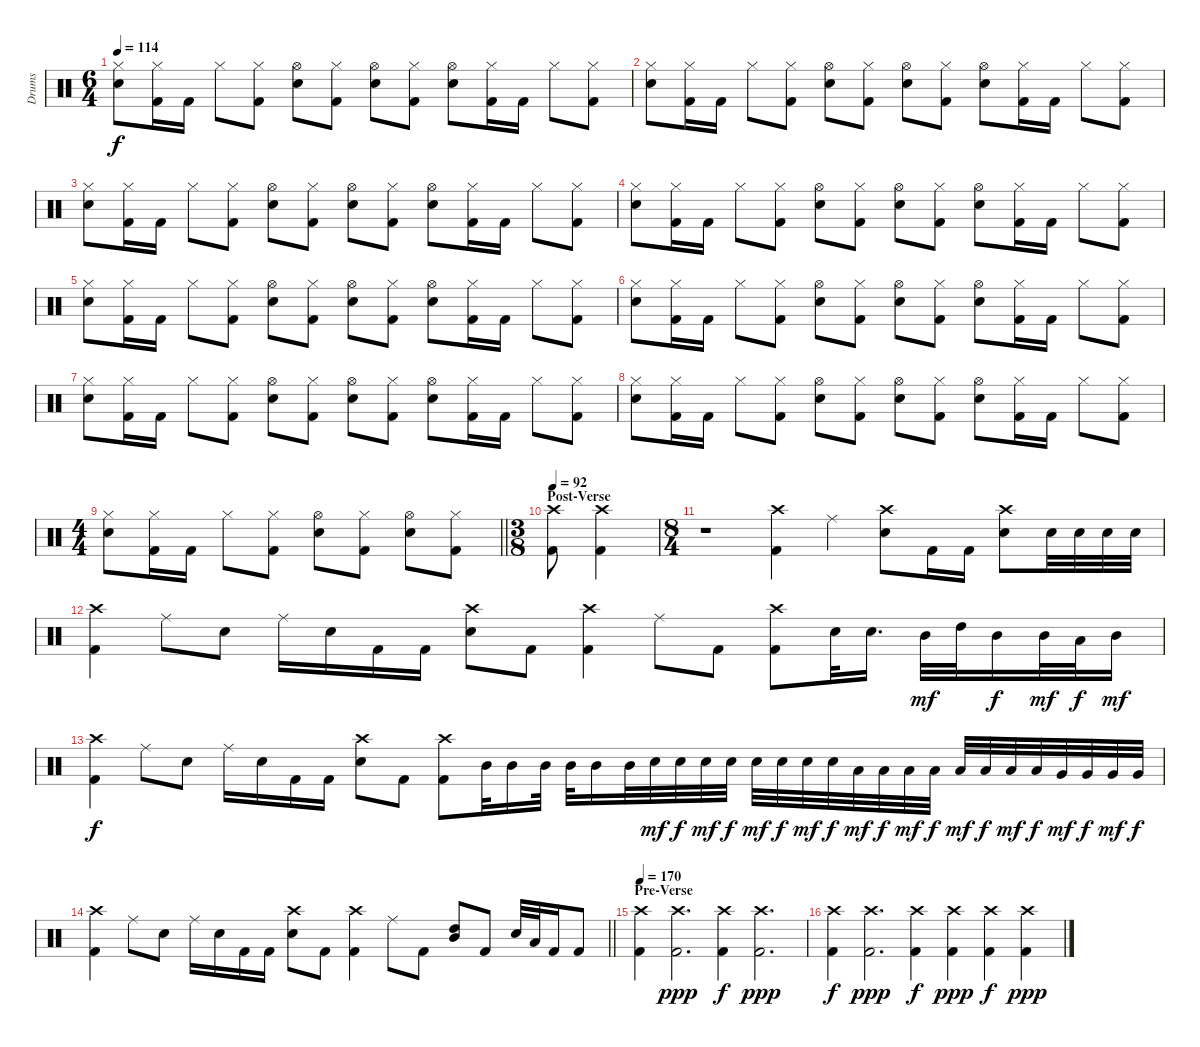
\track ("Drums" "Drums") {instrument percussion}
\staff {score}
\articulation defaults
\ts (6 4)
\tempo 114
\clef neutral
\ks c
("Hi-Hat (closed)" "Snare (hit) 2").8{dy f} ("Hi-Hat (closed)" "Kick (hit) 2").16 "Kick (hit) 2".16 "Hi-Hat (closed)".8 ("Hi-Hat (closed)" "Kick (hit) 2").8 ("Hi-Hat (open)" "Snare (hit) 2").8 ("Hi-Hat (closed)" "Kick (hit) 2").8 ("Hi-Hat (open)" "Snare (hit) 2").8 ("Hi-Hat (closed)" "Kick (hit) 2").8 ("Hi-Hat (open)" "Snare (hit) 2").8 ("Hi-Hat (closed)" "Kick (hit) 2").16 "Kick (hit) 2".16 "Hi-Hat (closed)".8 ("Hi-Hat (closed)" "Kick (hit) 2").8 |
("Hi-Hat (closed)" "Snare (hit) 2").8 ("Hi-Hat (closed)" "Kick (hit) 2").16 "Kick (hit) 2".16 "Hi-Hat (closed)".8 ("Hi-Hat (closed)" "Kick (hit) 2").8 ("Hi-Hat (open)" "Snare (hit) 2").8 ("Hi-Hat (closed)" "Kick (hit) 2").8 ("Hi-Hat (open)" "Snare (hit) 2").8 ("Hi-Hat (closed)" "Kick (hit) 2").8 ("Hi-Hat (open)" "Snare (hit) 2").8 ("Hi-Hat (closed)" "Kick (hit) 2").16 "Kick (hit) 2".16 "Hi-Hat (closed)".8 ("Hi-Hat (closed)" "Kick (hit) 2").8 |
("Hi-Hat (closed)" "Snare (hit) 2").8 ("Hi-Hat (closed)" "Kick (hit) 2").16 "Kick (hit) 2".16 "Hi-Hat (closed)".8 ("Hi-Hat (closed)" "Kick (hit) 2").8 ("Hi-Hat (open)" "Snare (hit) 2").8 ("Hi-Hat (closed)" "Kick (hit) 2").8 ("Hi-Hat (open)" "Snare (hit) 2").8 ("Hi-Hat (closed)" "Kick (hit) 2").8 ("Hi-Hat (open)" "Snare (hit) 2").8 ("Hi-Hat (closed)" "Kick (hit) 2").16 "Kick (hit) 2".16 "Hi-Hat (closed)".8 ("Hi-Hat (closed)" "Kick (hit) 2").8 |
("Hi-Hat (closed)" "Snare (hit) 2").8 ("Hi-Hat (closed)" "Kick (hit) 2").16 "Kick (hit) 2".16 "Hi-Hat (closed)".8 ("Hi-Hat (closed)" "Kick (hit) 2").8 ("Hi-Hat (open)" "Snare (hit) 2").8 ("Hi-Hat (closed)" "Kick (hit) 2").8 ("Hi-Hat (open)" "Snare (hit) 2").8 ("Hi-Hat (closed)" "Kick (hit) 2").8 ("Hi-Hat (open)" "Snare (hit) 2").8 ("Hi-Hat (closed)" "Kick (hit) 2").16 "Kick (hit) 2".16 "Hi-Hat (closed)".8 ("Hi-Hat (closed)" "Kick (hit) 2").8 |
("Hi-Hat (closed)" "Snare (hit) 2").8 ("Hi-Hat (closed)" "Kick (hit) 2").16 "Kick (hit) 2".16 "Hi-Hat (closed)".8 ("Hi-Hat (closed)" "Kick (hit) 2").8 ("Hi-Hat (open)" "Snare (hit) 2").8 ("Hi-Hat (closed)" "Kick (hit) 2").8 ("Hi-Hat (open)" "Snare (hit) 2").8 ("Hi-Hat (closed)" "Kick (hit) 2").8 ("Hi-Hat (open)" "Snare (hit) 2").8 ("Hi-Hat (closed)" "Kick (hit) 2").16 "Kick (hit) 2".16 "Hi-Hat (closed)".8 ("Hi-Hat (closed)" "Kick (hit) 2").8 |
("Hi-Hat (closed)" "Snare (hit) 2").8 ("Hi-Hat (closed)" "Kick (hit) 2").16 "Kick (hit) 2".16 "Hi-Hat (closed)".8 ("Hi-Hat (closed)" "Kick (hit) 2").8 ("Hi-Hat (open)" "Snare (hit) 2").8 ("Hi-Hat (closed)" "Kick (hit) 2").8 ("Hi-Hat (open)" "Snare (hit) 2").8 ("Hi-Hat (closed)" "Kick (hit) 2").8 ("Hi-Hat (open)" "Snare (hit) 2").8 ("Hi-Hat (closed)" "Kick (hit) 2").16 "Kick (hit) 2".16 "Hi-Hat (closed)".8 ("Hi-Hat (closed)" "Kick (hit) 2").8 |
("Hi-Hat (closed)" "Snare (hit) 2").8 ("Hi-Hat (closed)" "Kick (hit) 2").16 "Kick (hit) 2".16 "Hi-Hat (closed)".8 ("Hi-Hat (closed)" "Kick (hit) 2").8 ("Hi-Hat (open)" "Snare (hit) 2").8 ("Hi-Hat (closed)" "Kick (hit) 2").8 ("Hi-Hat (open)" "Snare (hit) 2").8 ("Hi-Hat (closed)" "Kick (hit) 2").8 ("Hi-Hat (open)" "Snare (hit) 2").8 ("Hi-Hat (closed)" "Kick (hit) 2").16 "Kick (hit) 2".16 "Hi-Hat (closed)".8 ("Hi-Hat (closed)" "Kick (hit) 2").8 |
("Hi-Hat (closed)" "Snare (hit) 2").8 ("Hi-Hat (closed)" "Kick (hit) 2").16 "Kick (hit) 2".16 "Hi-Hat (closed)".8 ("Hi-Hat (closed)" "Kick (hit) 2").8 ("Hi-Hat (open)" "Snare (hit) 2").8 ("Hi-Hat (closed)" "Kick (hit) 2").8 ("Hi-Hat (open)" "Snare (hit) 2").8 ("Hi-Hat (closed)" "Kick (hit) 2").8 ("Hi-Hat (open)" "Snare (hit) 2").8 ("Hi-Hat (closed)" "Kick (hit) 2").16 "Kick (hit) 2".16 "Hi-Hat (closed)".8 ("Hi-Hat (closed)" "Kick (hit) 2").8 |
\ts (4 4)
\barLineRight lightlight
("Hi-Hat (closed)" "Snare (hit) 2").8 ("Hi-Hat (closed)" "Kick (hit) 2").16 "Kick (hit) 2".16 "Hi-Hat (closed)".8 ("Hi-Hat (closed)" "Kick (hit) 2").8 ("Hi-Hat (open)" "Snare (hit) 2").8 ("Hi-Hat (closed)" "Kick (hit) 2").8 ("Hi-Hat (open)" "Snare (hit) 2").8 ("Hi-Hat (closed)" "Kick (hit) 2").8 |
\ts (3 8)
\section ("" "Post-Verse")
\tempo 92
("Crash high (hit)" "Kick (hit) 2").8 ("Crash high (hit)" "Kick (hit) 2").4 |
\ts (8 4)
r.1 ("Crash high (hit)" "Kick (hit) 2").4 "Ride (middle)".4 ("Crash high (hit)" "Snare (hit) 2").8 "Kick (hit) 2".16 "Kick (hit) 2".16 ("Crash high (hit)" "Snare (hit) 2").8 "Snare (hit) 2".32 "Snare (hit) 2".32 "Snare (hit) 2".32 "Snare (hit) 2".32 |
("Crash high (hit)" "Kick (hit) 2").4 "Ride (middle)".8 "Snare (hit) 2".8 "Ride (middle)".16 "Snare (hit) 2".16 "Kick (hit) 2".16 "Kick (hit) 2".16 ("Crash high (hit)" "Snare (hit) 2").8 "Kick (hit) 2".8 ("Crash high (hit)" "Kick (hit) 2").4 "Ride (middle)".8 "Kick (hit) 2".8 ("Crash high (hit)" "Kick (hit) 2").8 "Snare (hit) 2".32 "Snare (hit) 2".16{d} "Mid Tom (hit)".32{dy mf} "High Tom (hit)".32 "Mid Tom (hit)".16{dy f} "Mid Tom (hit)".32{dy mf} "Low Tom (hit)".32{dy f} "Mid Tom (hit)".16{dy mf} |
("Crash high (hit)" "Kick (hit) 2").4{dy f} "Ride (middle)".8 "Snare (hit) 2".8 "Ride (middle)".16 "Snare (hit) 2".16 "Kick (hit) 2".16 "Kick (hit) 2".16 ("Crash high (hit)" "Snare (hit) 2").8 "Kick (hit) 2".8 ("Crash high (hit)" "Kick (hit) 2").8 "Mid Tom (hit)".32 "Mid Tom (hit)".16 "Mid Tom (hit)".32 "Mid Tom (hit)".32 "Mid Tom (hit)".16 "Mid Tom (hit)".32 "Snare (hit) 2".32{dy mf} "Snare (hit) 2".32{dy f} "Snare (hit) 2".32{dy mf} "Snare (hit) 2".32{dy f} "Snare (hit) 2".32{dy mf} "Snare (hit) 2".32{dy f} "Snare (hit) 2".32{dy mf} "Snare (hit) 2".32{dy f} "Low Tom (hit)".32{dy mf} "Low Tom (hit)".32{dy f} "Low Tom (hit)".32{dy mf} "Low Tom (hit)".32{dy f} "Low Tom (hit)".32{dy mf} "Low Tom (hit)".32{dy f} "Low Tom (hit)".32{dy mf} "Low Tom (hit)".32{dy f} "Very Low Tom (hit)".32{dy mf} "Very Low Tom (hit)".32{dy f} "Very Low Tom (hit)".32{dy mf} "Very Low Tom (hit)".32{dy f} |
\barLineRight lightlight
("Crash high (hit)" "Kick (hit) 2").4 "Ride (middle)".8 "Snare (hit) 2".8 "Ride (middle)".16 "Snare (hit) 2".16 "Kick (hit) 2".16 "Kick (hit) 2".16 ("Crash high (hit)" "Snare (hit) 2").8 "Kick (hit) 2".8 ("Crash high (hit)" "Kick (hit) 2").4 "Ride (middle)".8 "Kick (hit) 2".8 ("High Tom (hit)" "Mid Tom (hit)").8 "Kick (hit) 2".8 "Snare (hit) 2".32 "Low Tom (hit)".32 "Kick (hit) 2".16 "Kick (hit) 2".8 |
\section ("" "Pre-Verse")
\tempo 170
("Crash high (hit)" "Kick (hit) 2").4 ("Crash high (hit)" "Kick (hit) 2").2{d dy ppp} ("Crash high (hit)" "Kick (hit) 2").4{dy f} ("Crash high (hit)" "Kick (hit) 2").2{d dy ppp} |
("Crash high (hit)" "Kick (hit) 2").4{dy f} ("Crash high (hit)" "Kick (hit) 2").2{d dy ppp} ("Crash high (hit)" "Kick (hit) 2").4{dy f} ("Crash high (hit)" "Kick (hit) 2").4{dy ppp} ("Crash high (hit)" "Kick (hit) 2").4{dy f} ("Crash high (hit)" "Kick (hit) 2").4{dy ppp}
